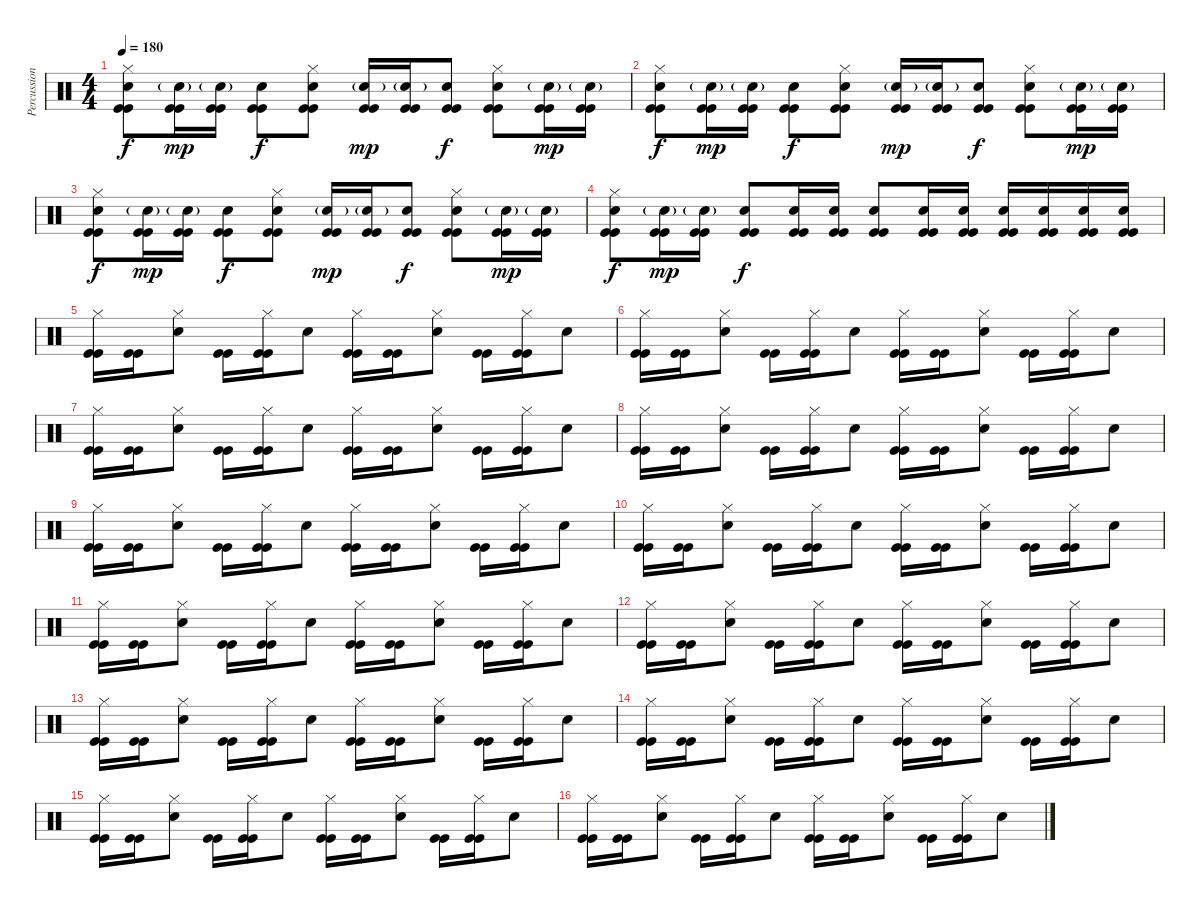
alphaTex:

\track ("Percussion" "Percussion") {instrument percussion}
\staff {score}
\articulation defaults
\ts (4 4)
\tempo 180
\clef neutral
\ks c
("Hi-Hat (closed)" "Electric Snare (hit)" "Kick (hit)" "Kick (hit)").8{dy f} ("Electric Snare (hit)"{g} "Kick (hit)" "Kick (hit)").16{dy mp} ("Electric Snare (hit)"{g} "Kick (hit)" "Kick (hit)").16 ("Electric Snare (hit)" "Kick (hit)" "Kick (hit)").8{dy f} ("Hi-Hat (closed)" "Electric Snare (hit)" "Kick (hit)" "Kick (hit)").8 ("Electric Snare (hit)"{g} "Kick (hit)" "Kick (hit)").16{dy mp} ("Electric Snare (hit)"{g} "Kick (hit)" "Kick (hit)").16 ("Electric Snare (hit)" "Kick (hit)" "Kick (hit)").8{dy f} ("Hi-Hat (closed)" "Electric Snare (hit)" "Kick (hit)" "Kick (hit)").8 ("Electric Snare (hit)"{g} "Kick (hit)" "Kick (hit)").16{dy mp} ("Electric Snare (hit)"{g} "Kick (hit)" "Kick (hit)").16 |
("Hi-Hat (closed)" "Electric Snare (hit)" "Kick (hit)" "Kick (hit)").8{dy f} ("Electric Snare (hit)"{g} "Kick (hit)" "Kick (hit)").16{dy mp} ("Electric Snare (hit)"{g} "Kick (hit)" "Kick (hit)").16 ("Electric Snare (hit)" "Kick (hit)" "Kick (hit)").8{dy f} ("Hi-Hat (closed)" "Electric Snare (hit)" "Kick (hit)" "Kick (hit)").8 ("Electric Snare (hit)"{g} "Kick (hit)" "Kick (hit)").16{dy mp} ("Electric Snare (hit)"{g} "Kick (hit)" "Kick (hit)").16 ("Electric Snare (hit)" "Kick (hit)" "Kick (hit)").8{dy f} ("Hi-Hat (closed)" "Electric Snare (hit)" "Kick (hit)" "Kick (hit)").8 ("Electric Snare (hit)"{g} "Kick (hit)" "Kick (hit)").16{dy mp} ("Electric Snare (hit)"{g} "Kick (hit)" "Kick (hit)").16 |
("Hi-Hat (closed)" "Electric Snare (hit)" "Kick (hit)" "Kick (hit)").8{dy f} ("Electric Snare (hit)"{g} "Kick (hit)" "Kick (hit)").16{dy mp} ("Electric Snare (hit)"{g} "Kick (hit)" "Kick (hit)").16 ("Electric Snare (hit)" "Kick (hit)" "Kick (hit)").8{dy f} ("Hi-Hat (closed)" "Electric Snare (hit)" "Kick (hit)" "Kick (hit)").8 ("Electric Snare (hit)"{g} "Kick (hit)" "Kick (hit)").16{dy mp} ("Electric Snare (hit)"{g} "Kick (hit)" "Kick (hit)").16 ("Electric Snare (hit)" "Kick (hit)" "Kick (hit)").8{dy f} ("Hi-Hat (closed)" "Electric Snare (hit)" "Kick (hit)" "Kick (hit)").8 ("Electric Snare (hit)"{g} "Kick (hit)" "Kick (hit)").16{dy mp} ("Electric Snare (hit)"{g} "Kick (hit)" "Kick (hit)").16 |
("Hi-Hat (closed)" "Electric Snare (hit)" "Kick (hit)" "Kick (hit)").8{dy f} ("Electric Snare (hit)"{g} "Kick (hit)" "Kick (hit)").16{dy mp} ("Electric Snare (hit)"{g} "Kick (hit)" "Kick (hit)").16 ("Electric Snare (hit)" "Kick (hit)" "Kick (hit)").8{dy f} ("Electric Snare (hit)" "Kick (hit)" "Kick (hit)").16 ("Electric Snare (hit)" "Kick (hit)" "Kick (hit)").16 ("Electric Snare (hit)" "Kick (hit)" "Kick (hit)").8 ("Electric Snare (hit)" "Kick (hit)" "Kick (hit)").16 ("Electric Snare (hit)" "Kick (hit)" "Kick (hit)").16 ("Electric Snare (hit)" "Kick (hit)" "Kick (hit)").16 ("Electric Snare (hit)" "Kick (hit)" "Kick (hit)").16 ("Electric Snare (hit)" "Kick (hit)" "Kick (hit)").16 ("Electric Snare (hit)" "Kick (hit)" "Kick (hit)").16 |
("Hi-Hat (closed)" "Kick (hit)" "Kick (hit)").16 ("Kick (hit)" "Kick (hit)").16 ("Hi-Hat (closed)" "Electric Snare (hit)").8 ("Kick (hit)" "Kick (hit)").16 ("Hi-Hat (closed)" "Kick (hit)" "Kick (hit)").16 "Electric Snare (hit)".8 ("Hi-Hat (closed)" "Kick (hit)" "Kick (hit)").16 ("Kick (hit)" "Kick (hit)").16 ("Hi-Hat (closed)" "Electric Snare (hit)").8 ("Kick (hit)" "Kick (hit)").16 ("Hi-Hat (closed)" "Kick (hit)" "Kick (hit)").16 "Electric Snare (hit)".8 |
("Hi-Hat (closed)" "Kick (hit)" "Kick (hit)").16 ("Kick (hit)" "Kick (hit)").16 ("Hi-Hat (closed)" "Electric Snare (hit)").8 ("Kick (hit)" "Kick (hit)").16 ("Hi-Hat (closed)" "Kick (hit)" "Kick (hit)").16 "Electric Snare (hit)".8 ("Hi-Hat (closed)" "Kick (hit)" "Kick (hit)").16 ("Kick (hit)" "Kick (hit)").16 ("Hi-Hat (closed)" "Electric Snare (hit)").8 ("Kick (hit)" "Kick (hit)").16 ("Hi-Hat (closed)" "Kick (hit)" "Kick (hit)").16 "Electric Snare (hit)".8 |
("Hi-Hat (closed)" "Kick (hit)" "Kick (hit)").16 ("Kick (hit)" "Kick (hit)").16 ("Hi-Hat (closed)" "Electric Snare (hit)").8 ("Kick (hit)" "Kick (hit)").16 ("Hi-Hat (closed)" "Kick (hit)" "Kick (hit)").16 "Electric Snare (hit)".8 ("Hi-Hat (closed)" "Kick (hit)" "Kick (hit)").16 ("Kick (hit)" "Kick (hit)").16 ("Hi-Hat (closed)" "Electric Snare (hit)").8 ("Kick (hit)" "Kick (hit)").16 ("Hi-Hat (closed)" "Kick (hit)" "Kick (hit)").16 "Electric Snare (hit)".8 |
("Hi-Hat (closed)" "Kick (hit)" "Kick (hit)").16 ("Kick (hit)" "Kick (hit)").16 ("Hi-Hat (closed)" "Electric Snare (hit)").8 ("Kick (hit)" "Kick (hit)").16 ("Hi-Hat (closed)" "Kick (hit)" "Kick (hit)").16 "Electric Snare (hit)".8 ("Hi-Hat (closed)" "Kick (hit)" "Kick (hit)").16 ("Kick (hit)" "Kick (hit)").16 ("Hi-Hat (closed)" "Electric Snare (hit)").8 ("Kick (hit)" "Kick (hit)").16 ("Hi-Hat (closed)" "Kick (hit)" "Kick (hit)").16 "Electric Snare (hit)".8 |
("Hi-Hat (closed)" "Kick (hit)" "Kick (hit)").16 ("Kick (hit)" "Kick (hit)").16 ("Hi-Hat (closed)" "Electric Snare (hit)").8 ("Kick (hit)" "Kick (hit)").16 ("Hi-Hat (closed)" "Kick (hit)" "Kick (hit)").16 "Electric Snare (hit)".8 ("Hi-Hat (closed)" "Kick (hit)" "Kick (hit)").16 ("Kick (hit)" "Kick (hit)").16 ("Hi-Hat (closed)" "Electric Snare (hit)").8 ("Kick (hit)" "Kick (hit)").16 ("Hi-Hat (closed)" "Kick (hit)" "Kick (hit)").16 "Electric Snare (hit)".8 |
("Hi-Hat (closed)" "Kick (hit)" "Kick (hit)").16 ("Kick (hit)" "Kick (hit)").16 ("Hi-Hat (closed)" "Electric Snare (hit)").8 ("Kick (hit)" "Kick (hit)").16 ("Hi-Hat (closed)" "Kick (hit)" "Kick (hit)").16 "Electric Snare (hit)".8 ("Hi-Hat (closed)" "Kick (hit)" "Kick (hit)").16 ("Kick (hit)" "Kick (hit)").16 ("Hi-Hat (closed)" "Electric Snare (hit)").8 ("Kick (hit)" "Kick (hit)").16 ("Hi-Hat (closed)" "Kick (hit)" "Kick (hit)").16 "Electric Snare (hit)".8 |
("Hi-Hat (closed)" "Kick (hit)" "Kick (hit)").16 ("Kick (hit)" "Kick (hit)").16 ("Hi-Hat (closed)" "Electric Snare (hit)").8 ("Kick (hit)" "Kick (hit)").16 ("Hi-Hat (closed)" "Kick (hit)" "Kick (hit)").16 "Electric Snare (hit)".8 ("Hi-Hat (closed)" "Kick (hit)" "Kick (hit)").16 ("Kick (hit)" "Kick (hit)").16 ("Hi-Hat (closed)" "Electric Snare (hit)").8 ("Kick (hit)" "Kick (hit)").16 ("Hi-Hat (closed)" "Kick (hit)" "Kick (hit)").16 "Electric Snare (hit)".8 |
("Hi-Hat (closed)" "Kick (hit)" "Kick (hit)").16 ("Kick (hit)" "Kick (hit)").16 ("Hi-Hat (closed)" "Electric Snare (hit)").8 ("Kick (hit)" "Kick (hit)").16 ("Hi-Hat (closed)" "Kick (hit)" "Kick (hit)").16 "Electric Snare (hit)".8 ("Hi-Hat (closed)" "Kick (hit)" "Kick (hit)").16 ("Kick (hit)" "Kick (hit)").16 ("Hi-Hat (closed)" "Electric Snare (hit)").8 ("Kick (hit)" "Kick (hit)").16 ("Hi-Hat (closed)" "Kick (hit)" "Kick (hit)").16 "Electric Snare (hit)".8 |
("Hi-Hat (closed)" "Kick (hit)" "Kick (hit)").16 ("Kick (hit)" "Kick (hit)").16 ("Hi-Hat (closed)" "Electric Snare (hit)").8 ("Kick (hit)" "Kick (hit)").16 ("Hi-Hat (closed)" "Kick (hit)" "Kick (hit)").16 "Electric Snare (hit)".8 ("Hi-Hat (closed)" "Kick (hit)" "Kick (hit)").16 ("Kick (hit)" "Kick (hit)").16 ("Hi-Hat (closed)" "Electric Snare (hit)").8 ("Kick (hit)" "Kick (hit)").16 ("Hi-Hat (closed)" "Kick (hit)" "Kick (hit)").16 "Electric Snare (hit)".8 |
("Hi-Hat (closed)" "Kick (hit)" "Kick (hit)").16 ("Kick (hit)" "Kick (hit)").16 ("Hi-Hat (closed)" "Electric Snare (hit)").8 ("Kick (hit)" "Kick (hit)").16 ("Hi-Hat (closed)" "Kick (hit)" "Kick (hit)").16 "Electric Snare (hit)".8 ("Hi-Hat (closed)" "Kick (hit)" "Kick (hit)").16 ("Kick (hit)" "Kick (hit)").16 ("Hi-Hat (closed)" "Electric Snare (hit)").8 ("Kick (hit)" "Kick (hit)").16 ("Hi-Hat (closed)" "Kick (hit)" "Kick (hit)").16 "Electric Snare (hit)".8 |
("Hi-Hat (closed)" "Kick (hit)" "Kick (hit)").16 ("Kick (hit)" "Kick (hit)").16 ("Hi-Hat (closed)" "Electric Snare (hit)").8 ("Kick (hit)" "Kick (hit)").16 ("Hi-Hat (closed)" "Kick (hit)" "Kick (hit)").16 "Electric Snare (hit)".8 ("Hi-Hat (closed)" "Kick (hit)" "Kick (hit)").16 ("Kick (hit)" "Kick (hit)").16 ("Hi-Hat (closed)" "Electric Snare (hit)").8 ("Kick (hit)" "Kick (hit)").16 ("Hi-Hat (closed)" "Kick (hit)" "Kick (hit)").16 "Electric Snare (hit)".8 |
("Hi-Hat (closed)" "Kick (hit)" "Kick (hit)").16 ("Kick (hit)" "Kick (hit)").16 ("Hi-Hat (closed)" "Electric Snare (hit)").8 ("Kick (hit)" "Kick (hit)").16 ("Hi-Hat (closed)" "Kick (hit)" "Kick (hit)").16 "Electric Snare (hit)".8 ("Hi-Hat (closed)" "Kick (hit)" "Kick (hit)").16 ("Kick (hit)" "Kick (hit)").16 ("Hi-Hat (closed)" "Electric Snare (hit)").8 ("Kick (hit)" "Kick (hit)").16 ("Hi-Hat (closed)" "Kick (hit)" "Kick (hit)").16 "Electric Snare (hit)".8
